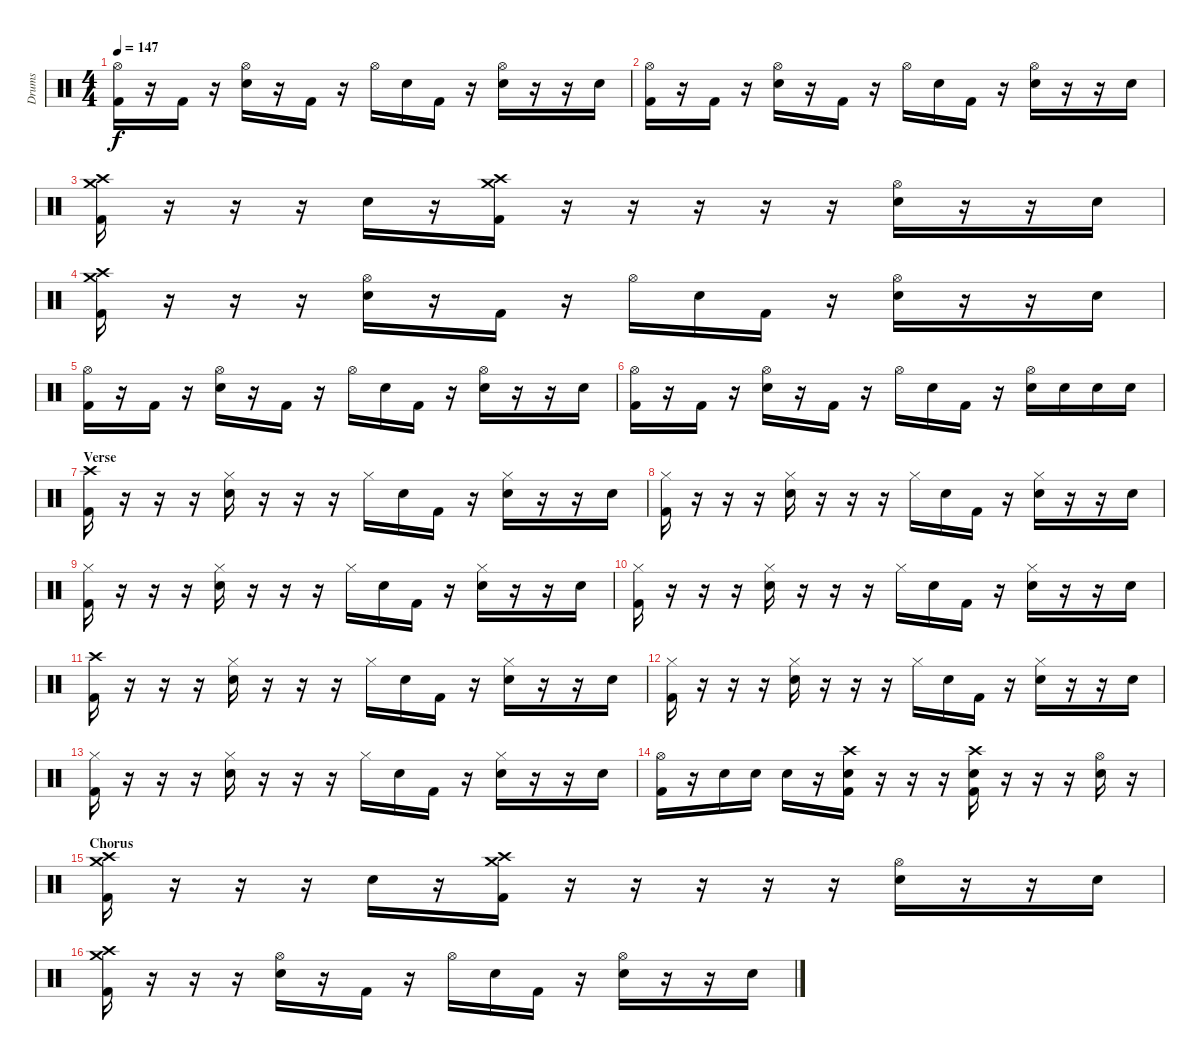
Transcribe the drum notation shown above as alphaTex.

\track ("Drums" "Drums") {instrument percussion}
\staff {score}
\articulation defaults
\ts (4 4)
\tempo 147
\clef neutral
\ks c
("Hi-Hat (open)" "Kick (hit) 2").16{dy f} r.16 "Kick (hit) 2".16 r.16 ("Hi-Hat (open)" "Snare (hit) 2").16 r.16 "Kick (hit) 2".16 r.16 "Hi-Hat (open)".16 "Snare (hit) 2".16 "Kick (hit) 2".16 r.16 ("Hi-Hat (open)" "Snare (hit) 2").16 r.16 r.16 "Snare (hit) 2".16 |
("Hi-Hat (open)" "Kick (hit) 2").16 r.16 "Kick (hit) 2".16 r.16 ("Hi-Hat (open)" "Snare (hit) 2").16 r.16 "Kick (hit) 2".16 r.16 "Hi-Hat (open)".16 "Snare (hit) 2".16 "Kick (hit) 2".16 r.16 ("Hi-Hat (open)" "Snare (hit) 2").16 r.16 r.16 "Snare (hit) 2".16 |
("Crash high (hit)" "Crash medium (hit)" "Kick (hit) 2").16 r.16 r.16 r.16 "Snare (hit) 2".16 r.16 ("Crash high (hit)" "Crash medium (hit)" "Kick (hit) 2").16 r.16 r.16 r.16 r.16 r.16 ("Hi-Hat (open)" "Snare (hit) 2").16 r.16 r.16 "Snare (hit) 2".16 |
("Crash high (hit)" "Crash medium (hit)" "Kick (hit) 2").16 r.16 r.16 r.16 ("Hi-Hat (open)" "Snare (hit) 2").16 r.16 "Kick (hit) 2".16 r.16 "Hi-Hat (open)".16 "Snare (hit) 2".16 "Kick (hit) 2".16 r.16 ("Hi-Hat (open)" "Snare (hit) 2").16 r.16 r.16 "Snare (hit) 2".16 |
("Hi-Hat (open)" "Kick (hit) 2").16 r.16 "Kick (hit) 2".16 r.16 ("Hi-Hat (open)" "Snare (hit) 2").16 r.16 "Kick (hit) 2".16 r.16 "Hi-Hat (open)".16 "Snare (hit) 2".16 "Kick (hit) 2".16 r.16 ("Hi-Hat (open)" "Snare (hit) 2").16 r.16 r.16 "Snare (hit) 2".16 |
("Hi-Hat (open)" "Kick (hit) 2").16 r.16 "Kick (hit) 2".16 r.16 ("Hi-Hat (open)" "Snare (hit) 2").16 r.16 "Kick (hit) 2".16 r.16 "Hi-Hat (open)".16 "Snare (hit) 2".16 "Kick (hit) 2".16 r.16 ("Hi-Hat (open)" "Snare (hit) 2").16 "Snare (hit) 2".16 "Snare (hit) 2".16 "Snare (hit) 2".16 |
\section ("" "Verse")
("Crash high (hit)" "Kick (hit) 2").16 r.16 r.16 r.16 ("Hi-Hat (closed)" "Snare (hit) 2").16 r.16 r.16 r.16 "Hi-Hat (closed)".16 "Snare (hit) 2".16 "Kick (hit) 2".16 r.16 ("Hi-Hat (closed)" "Snare (hit) 2").16 r.16 r.16 "Snare (hit) 2".16 |
("Hi-Hat (closed)" "Kick (hit) 2").16 r.16 r.16 r.16 ("Hi-Hat (closed)" "Snare (hit) 2").16 r.16 r.16 r.16 "Hi-Hat (closed)".16 "Snare (hit) 2".16 "Kick (hit) 2".16 r.16 ("Hi-Hat (closed)" "Snare (hit) 2").16 r.16 r.16 "Snare (hit) 2".16 |
("Hi-Hat (closed)" "Kick (hit) 2").16 r.16 r.16 r.16 ("Hi-Hat (closed)" "Snare (hit) 2").16 r.16 r.16 r.16 "Hi-Hat (closed)".16 "Snare (hit) 2".16 "Kick (hit) 2".16 r.16 ("Hi-Hat (closed)" "Snare (hit) 2").16 r.16 r.16 "Snare (hit) 2".16 |
("Hi-Hat (closed)" "Kick (hit) 2").16 r.16 r.16 r.16 ("Hi-Hat (closed)" "Snare (hit) 2").16 r.16 r.16 r.16 "Hi-Hat (closed)".16 "Snare (hit) 2".16 "Kick (hit) 2".16 r.16 ("Hi-Hat (closed)" "Snare (hit) 2").16 r.16 r.16 "Snare (hit) 2".16 |
("Crash high (hit)" "Kick (hit) 2").16 r.16 r.16 r.16 ("Hi-Hat (closed)" "Snare (hit) 2").16 r.16 r.16 r.16 "Hi-Hat (closed)".16 "Snare (hit) 2".16 "Kick (hit) 2".16 r.16 ("Hi-Hat (closed)" "Snare (hit) 2").16 r.16 r.16 "Snare (hit) 2".16 |
("Hi-Hat (closed)" "Kick (hit) 2").16 r.16 r.16 r.16 ("Hi-Hat (closed)" "Snare (hit) 2").16 r.16 r.16 r.16 "Hi-Hat (closed)".16 "Snare (hit) 2".16 "Kick (hit) 2".16 r.16 ("Hi-Hat (closed)" "Snare (hit) 2").16 r.16 r.16 "Snare (hit) 2".16 |
("Hi-Hat (closed)" "Kick (hit) 2").16 r.16 r.16 r.16 ("Hi-Hat (closed)" "Snare (hit) 2").16 r.16 r.16 r.16 "Hi-Hat (closed)".16 "Snare (hit) 2".16 "Kick (hit) 2".16 r.16 ("Hi-Hat (closed)" "Snare (hit) 2").16 r.16 r.16 "Snare (hit) 2".16 |
("Hi-Hat (open)" "Kick (hit) 2").16 r.16 "Snare (hit) 2".16 "Snare (hit) 2".16 "Snare (hit) 2".16 r.16 ("Crash high (hit)" "Snare (hit) 2" "Kick (hit) 2").16 r.16 r.16 r.16 ("Crash high (hit)" "Snare (hit) 2" "Kick (hit) 2").16 r.16 r.16 r.16 ("Hi-Hat (open)" "Snare (hit) 2").16 r.16 |
\section ("" "Chorus")
("Crash high (hit)" "Crash medium (hit)" "Kick (hit) 2").16 r.16 r.16 r.16 "Snare (hit) 2".16 r.16 ("Crash high (hit)" "Crash medium (hit)" "Kick (hit) 2").16 r.16 r.16 r.16 r.16 r.16 ("Hi-Hat (open)" "Snare (hit) 2").16 r.16 r.16 "Snare (hit) 2".16 |
("Crash high (hit)" "Crash medium (hit)" "Kick (hit) 2").16 r.16 r.16 r.16 ("Hi-Hat (open)" "Snare (hit) 2").16 r.16 "Kick (hit) 2".16 r.16 "Hi-Hat (open)".16 "Snare (hit) 2".16 "Kick (hit) 2".16 r.16 ("Hi-Hat (open)" "Snare (hit) 2").16 r.16 r.16 "Snare (hit) 2".16
